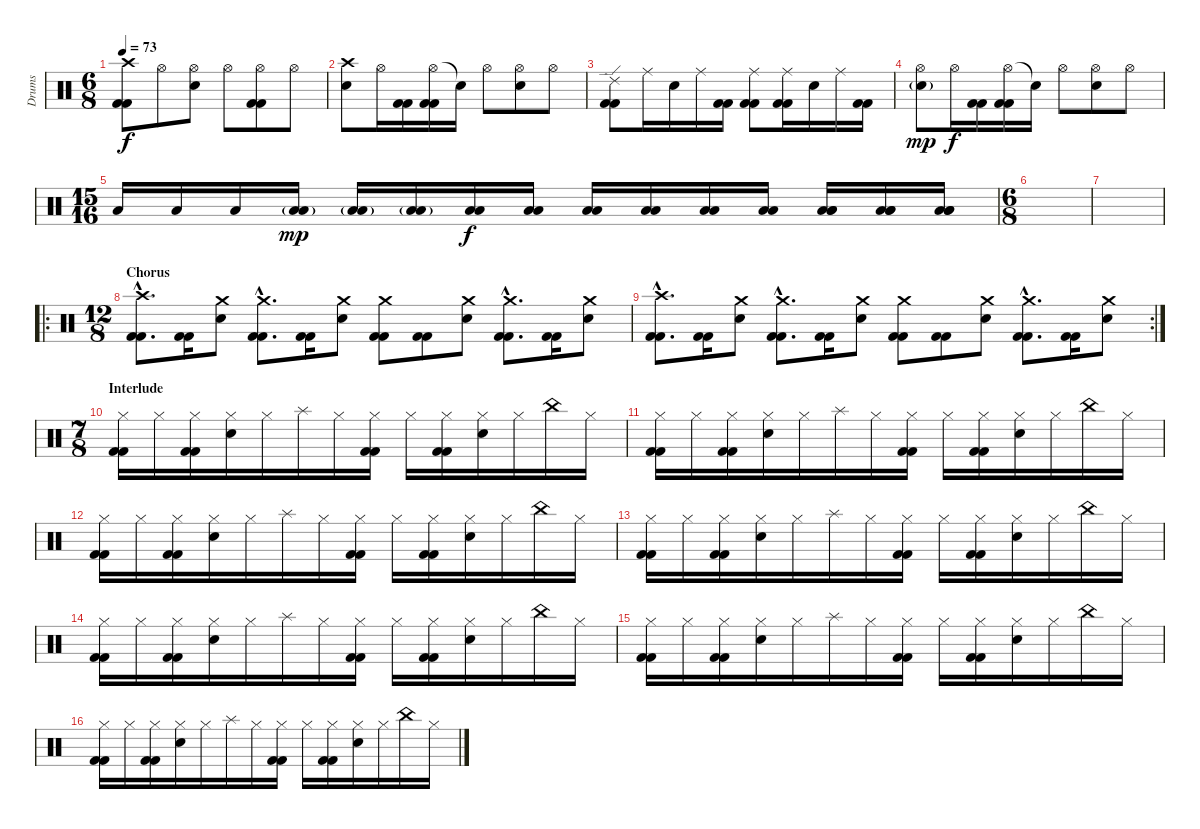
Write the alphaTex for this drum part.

\track ("Drums" "Drums") {instrument percussion}
\staff {score}
\articulation defaults
\ts (6 8)
\tempo 73
\clef neutral
\ks c
("Crash high (hit)" "Kick (hit) 2" "Kick (hit) 2").8{dy f} "Hi-Hat (open)".8 ("Hi-Hat (open)" "Snare (hit) 2").8 "Hi-Hat (open)".8 ("Hi-Hat (open)" "Kick (hit) 2" "Kick (hit) 2").8 "Hi-Hat (open)".8 |
("Crash high (hit)" "Snare (hit) 2").8 "Hi-Hat (open)".16 ("Kick (hit) 2" "Kick (hit) 2").16 ("Hi-Hat (open)" "Kick (hit) 2" "Kick (hit) 2").16 "Snare (hit)"{t}.16 "Hi-Hat (open)".8 ("Hi-Hat (open)" "Snare (hit) 2").8 "Hi-Hat (open)".8 |
("Ride (edge) 2" "Kick (hit) 2" "Kick (hit) 2").8 "Ride (middle)".16 "Snare (hit) 2".16 "Ride (middle)".16 ("Kick (hit) 2" "Kick (hit) 2").16 ("Ride (middle)" "Kick (hit) 2" "Kick (hit) 2").8 ("Ride (middle)" "Kick (hit) 2" "Kick (hit) 2").16 "Snare (hit) 2".16 "Ride (middle)".16 ("Kick (hit) 2" "Kick (hit) 2").16 |
("Hi-Hat (open)" "Electric Snare (hit)"{g}).8{dy mp} "Hi-Hat (open)".16{dy f} ("Kick (hit) 2" "Kick (hit) 2").16 ("Hi-Hat (open)" "Kick (hit) 2" "Kick (hit) 2").16 "Snare (hit)"{t}.16 "Hi-Hat (open)".8 ("Hi-Hat (open)" "Snare (hit) 2").8 "Hi-Hat (open)".8 |
\ts (15 16)
"Low Floor Tom (hit)".16 "Low Floor Tom (hit)".16 "Low Floor Tom (hit)".16 ("Low Floor Tom (hit)" "Low Floor Tom (hit)"{g}).16{dy mp} ("Low Floor Tom (hit)" "Low Floor Tom (hit)"{g}).16 ("Low Floor Tom (hit)" "Low Floor Tom (hit)"{g}).16 ("Low Floor Tom (hit)" "Low Floor Tom (hit)").16{dy f} ("Low Floor Tom (hit)" "Low Floor Tom (hit)").16 ("Low Floor Tom (hit)" "Low Floor Tom (hit)").16 ("Low Floor Tom (hit)" "Low Floor Tom (hit)").16 ("Low Floor Tom (hit)" "Low Floor Tom (hit)").16 ("Low Floor Tom (hit)" "Low Floor Tom (hit)").16 ("Low Floor Tom (hit)" "Low Floor Tom (hit)" "Low Floor Tom (hit)").16 ("Low Floor Tom (hit)" "Low Floor Tom (hit)" "Low Floor Tom (hit)").16 ("Low Floor Tom (hit)" "Low Floor Tom (hit)" "Low Floor Tom (hit)").16 |
\ts (6 8)
|
|
\ro
\ts (12 8)
\section ("" "Chorus")
("Crash high (hit)"{hac} "Kick (hit) 2"{hac} "Kick (hit) 2"{hac}).8{d} ("Kick (hit) 2" "Kick (hit) 2").16 ("Crash medium (hit)" "Snare (hit) 2").8 ("Crash medium (hit)"{hac} "Kick (hit) 2"{hac} "Kick (hit) 2"{hac}).8{d} ("Kick (hit) 2" "Kick (hit) 2").16 ("Crash medium (hit)" "Snare (hit) 2").8 ("Crash medium (hit)" "Kick (hit) 2" "Kick (hit) 2").8 ("Kick (hit) 2" "Kick (hit) 2").8 ("Crash medium (hit)" "Snare (hit) 2").8 ("Crash medium (hit)"{hac} "Kick (hit) 2"{hac} "Kick (hit) 2"{hac}).8{d} ("Kick (hit) 2" "Kick (hit) 2").16 ("Crash medium (hit)" "Snare (hit) 2").8 |
\rc 2
("Crash high (hit)"{hac} "Kick (hit) 2"{hac} "Kick (hit) 2"{hac}).8{d} ("Kick (hit) 2" "Kick (hit) 2").16 ("Crash medium (hit)" "Snare (hit) 2").8 ("Crash medium (hit)"{hac} "Kick (hit) 2"{hac} "Kick (hit) 2"{hac}).8{d} ("Kick (hit) 2" "Kick (hit) 2").16 ("Crash medium (hit)" "Snare (hit) 2").8 ("Crash medium (hit)" "Kick (hit) 2" "Kick (hit) 2").8 ("Kick (hit) 2" "Kick (hit) 2").8 ("Crash medium (hit)" "Snare (hit) 2").8 ("Crash medium (hit)"{hac} "Kick (hit) 2"{hac} "Kick (hit) 2"{hac}).8{d} ("Kick (hit) 2" "Kick (hit) 2").16 ("Crash medium (hit)" "Snare (hit) 2").8 |
\ts (7 8)
\section ("" "Interlude")
("Hi-Hat (closed)" "Kick (hit) 2" "Kick (hit) 2").16 "Hi-Hat (closed)".16 ("Hi-Hat (closed)" "Kick (hit) 2" "Kick (hit) 2").16 ("Hi-Hat (closed)" "Snare (hit) 2").16 "Hi-Hat (closed)".16 "Splash (hit)".16 "Hi-Hat (closed)".16 ("Hi-Hat (closed)" "Kick (hit) 2" "Kick (hit) 2").16 "Hi-Hat (closed)".16 ("Hi-Hat (closed)" "Kick (hit) 2" "Kick (hit) 2").16 ("Hi-Hat (closed)" "Snare (hit) 2").16 "Hi-Hat (closed)".16 "China (hit)".16 "Hi-Hat (closed)".16 |
("Hi-Hat (closed)" "Kick (hit) 2" "Kick (hit) 2").16 "Hi-Hat (closed)".16 ("Hi-Hat (closed)" "Kick (hit) 2" "Kick (hit) 2").16 ("Hi-Hat (closed)" "Snare (hit) 2").16 "Hi-Hat (closed)".16 "Splash (hit)".16 "Hi-Hat (closed)".16 ("Hi-Hat (closed)" "Kick (hit) 2" "Kick (hit) 2").16 "Hi-Hat (closed)".16 ("Hi-Hat (closed)" "Kick (hit) 2" "Kick (hit) 2").16 ("Hi-Hat (closed)" "Snare (hit) 2").16 "Hi-Hat (closed)".16 "China (hit)".16 "Hi-Hat (closed)".16 |
("Hi-Hat (closed)" "Kick (hit) 2" "Kick (hit) 2").16 "Hi-Hat (closed)".16 ("Hi-Hat (closed)" "Kick (hit) 2" "Kick (hit) 2").16 ("Hi-Hat (closed)" "Snare (hit) 2").16 "Hi-Hat (closed)".16 "Splash (hit)".16 "Hi-Hat (closed)".16 ("Hi-Hat (closed)" "Kick (hit) 2" "Kick (hit) 2").16 "Hi-Hat (closed)".16 ("Hi-Hat (closed)" "Kick (hit) 2" "Kick (hit) 2").16 ("Hi-Hat (closed)" "Snare (hit) 2").16 "Hi-Hat (closed)".16 "China (hit)".16 "Hi-Hat (closed)".16 |
("Hi-Hat (closed)" "Kick (hit) 2" "Kick (hit) 2").16 "Hi-Hat (closed)".16 ("Hi-Hat (closed)" "Kick (hit) 2" "Kick (hit) 2").16 ("Hi-Hat (closed)" "Snare (hit) 2").16 "Hi-Hat (closed)".16 "Splash (hit)".16 "Hi-Hat (closed)".16 ("Hi-Hat (closed)" "Kick (hit) 2" "Kick (hit) 2").16 "Hi-Hat (closed)".16 ("Hi-Hat (closed)" "Kick (hit) 2" "Kick (hit) 2").16 ("Hi-Hat (closed)" "Snare (hit) 2").16 "Hi-Hat (closed)".16 "China (hit)".16 "Hi-Hat (closed)".16 |
("Hi-Hat (closed)" "Kick (hit) 2" "Kick (hit) 2").16 "Hi-Hat (closed)".16 ("Hi-Hat (closed)" "Kick (hit) 2" "Kick (hit) 2").16 ("Hi-Hat (closed)" "Snare (hit) 2").16 "Hi-Hat (closed)".16 "Splash (hit)".16 "Hi-Hat (closed)".16 ("Hi-Hat (closed)" "Kick (hit) 2" "Kick (hit) 2").16 "Hi-Hat (closed)".16 ("Hi-Hat (closed)" "Kick (hit) 2" "Kick (hit) 2").16 ("Hi-Hat (closed)" "Snare (hit) 2").16 "Hi-Hat (closed)".16 "China (hit)".16 "Hi-Hat (closed)".16 |
("Hi-Hat (closed)" "Kick (hit) 2" "Kick (hit) 2").16 "Hi-Hat (closed)".16 ("Hi-Hat (closed)" "Kick (hit) 2" "Kick (hit) 2").16 ("Hi-Hat (closed)" "Snare (hit) 2").16 "Hi-Hat (closed)".16 "Splash (hit)".16 "Hi-Hat (closed)".16 ("Hi-Hat (closed)" "Kick (hit) 2" "Kick (hit) 2").16 "Hi-Hat (closed)".16 ("Hi-Hat (closed)" "Kick (hit) 2" "Kick (hit) 2").16 ("Hi-Hat (closed)" "Snare (hit) 2").16 "Hi-Hat (closed)".16 "China (hit)".16 "Hi-Hat (closed)".16 |
("Hi-Hat (closed)" "Kick (hit) 2" "Kick (hit) 2").16 "Hi-Hat (closed)".16 ("Hi-Hat (closed)" "Kick (hit) 2" "Kick (hit) 2").16 ("Hi-Hat (closed)" "Snare (hit) 2").16 "Hi-Hat (closed)".16 "Splash (hit)".16 "Hi-Hat (closed)".16 ("Hi-Hat (closed)" "Kick (hit) 2" "Kick (hit) 2").16 "Hi-Hat (closed)".16 ("Hi-Hat (closed)" "Kick (hit) 2" "Kick (hit) 2").16 ("Hi-Hat (closed)" "Snare (hit) 2").16 "Hi-Hat (closed)".16 "China (hit)".16 "Hi-Hat (closed)".16
